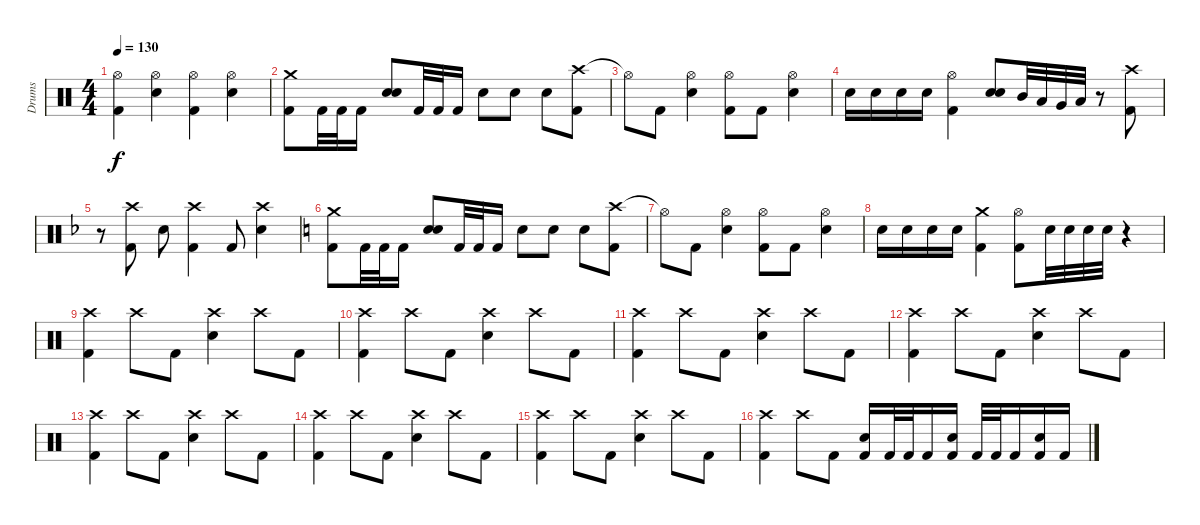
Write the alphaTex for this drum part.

\track ("Drums" "Drums") {instrument percussion}
\staff {score}
\articulation defaults
\ts (4 4)
\tempo 130
\clef neutral
\ks c
("Hi-Hat (open)" "Kick (hit) 2").4{dy f} ("Hi-Hat (open)" "Snare (hit) 2").4 ("Hi-Hat (open)" "Kick (hit) 2").4 ("Hi-Hat (open)" "Snare (hit) 2").4 |
("Crash medium (hit)" "Kick (hit) 2").8 "Kick (hit) 2".32 "Kick (hit) 2".32 "Kick (hit) 2".16 ("Snare (hit) 2" "Snare (hit) 2").8{bd 120} "Kick (hit) 2".32 "Kick (hit) 2".32 "Kick (hit) 2".16 "Snare (hit) 2".8 "Snare (hit) 2".8 "Snare (hit) 2".8 ("Crash high (hit)" "Kick (hit) 2").8 |
"Hi-Hat (open)"{t}.8 "Kick (hit) 2".8 ("Hi-Hat (open)" "Snare (hit) 2").4 ("Hi-Hat (open)" "Kick (hit) 2").8 "Kick (hit) 2".8 ("Hi-Hat (open)" "Snare (hit) 2").4 |
"Snare (hit) 2".16 "Snare (hit) 2".16 "Snare (hit) 2".16 "Snare (hit) 2".16 ("Hi-Hat (open)" "Kick (hit) 2").4 ("Snare (hit) 2" "Snare (hit) 2").8{bd 120} "Mid Tom (hit)".32 "Low Tom (hit)".32 "Very Low Tom (hit)".32 "Low Floor Tom (hit)".32 r.8 ("Crash high (hit)" "Kick (hit) 2").8 |
\ks f
r.8 ("Crash high (hit)" "Kick (hit) 2").8 "Snare (hit) 2".8 ("Crash high (hit)" "Kick (hit) 2").4 "Kick (hit) 2".8 ("Crash high (hit)" "Snare (hit) 2").4 |
\ks c
("Crash medium (hit)" "Kick (hit) 2").8 "Kick (hit) 2".32 "Kick (hit) 2".32 "Kick (hit) 2".16 ("Snare (hit) 2" "Snare (hit) 2").8{bd 120} "Kick (hit) 2".32 "Kick (hit) 2".32 "Kick (hit) 2".16 "Snare (hit) 2".8 "Snare (hit) 2".8 "Snare (hit) 2".8 ("Crash high (hit)" "Kick (hit) 2").8 |
"Hi-Hat (open)"{t}.8 "Kick (hit) 2".8 ("Hi-Hat (open)" "Snare (hit) 2").4 ("Hi-Hat (open)" "Kick (hit) 2").8 "Kick (hit) 2".8 ("Hi-Hat (open)" "Snare (hit) 2").4 |
"Snare (hit) 2".16 "Snare (hit) 2".16 "Snare (hit) 2".16 "Snare (hit) 2".16 ("Crash medium (hit)" "Kick (hit) 2").4 ("Hi-Hat (open)" "Kick (hit) 2").8{bd 120} "Snare (hit) 2".32 "Snare (hit) 2".32 "Snare (hit) 2".32 "Snare (hit) 2".32 r.4 |
("Crash high (hit)" "Kick (hit) 2").4 "Crash high (hit)".8 "Kick (hit) 2".8 ("Crash high (hit)" "Snare (hit) 2").4 "Crash high (hit)".8 "Kick (hit) 2".8 |
("Crash high (hit)" "Kick (hit) 2").4 "Crash high (hit)".8 "Kick (hit) 2".8 ("Crash high (hit)" "Snare (hit) 2").4 "Crash high (hit)".8 "Kick (hit) 2".8 |
("Crash high (hit)" "Kick (hit) 2").4 "Crash high (hit)".8 "Kick (hit) 2".8 ("Crash high (hit)" "Snare (hit) 2").4 "Crash high (hit)".8 "Kick (hit) 2".8 |
("Crash high (hit)" "Kick (hit) 2").4 "Crash high (hit)".8 "Kick (hit) 2".8 ("Crash high (hit)" "Snare (hit) 2").4 "Crash high (hit)".8 "Kick (hit) 2".8 |
("Crash high (hit)" "Kick (hit) 2").4 "Crash high (hit)".8 "Kick (hit) 2".8 ("Crash high (hit)" "Snare (hit) 2").4 "Crash high (hit)".8 "Kick (hit) 2".8 |
("Crash high (hit)" "Kick (hit) 2").4 "Crash high (hit)".8 "Kick (hit) 2".8 ("Crash high (hit)" "Snare (hit) 2").4 "Crash high (hit)".8 "Kick (hit) 2".8 |
("Crash high (hit)" "Kick (hit) 2").4 "Crash high (hit)".8 "Kick (hit) 2".8 ("Crash high (hit)" "Snare (hit) 2").4 "Crash high (hit)".8 "Kick (hit) 2".8 |
("Crash high (hit)" "Kick (hit) 2").4 "Crash high (hit)".8 "Kick (hit) 2".8 ("Snare (hit) 2" "Kick (hit) 2").16 "Kick (hit) 2".32 "Kick (hit) 2".32 "Kick (hit) 2".16 ("Snare (hit) 2" "Kick (hit) 2").16 "Kick (hit) 2".32 "Kick (hit) 2".32 "Kick (hit) 2".16 ("Snare (hit) 2" "Kick (hit) 2").16 "Kick (hit) 2".16
